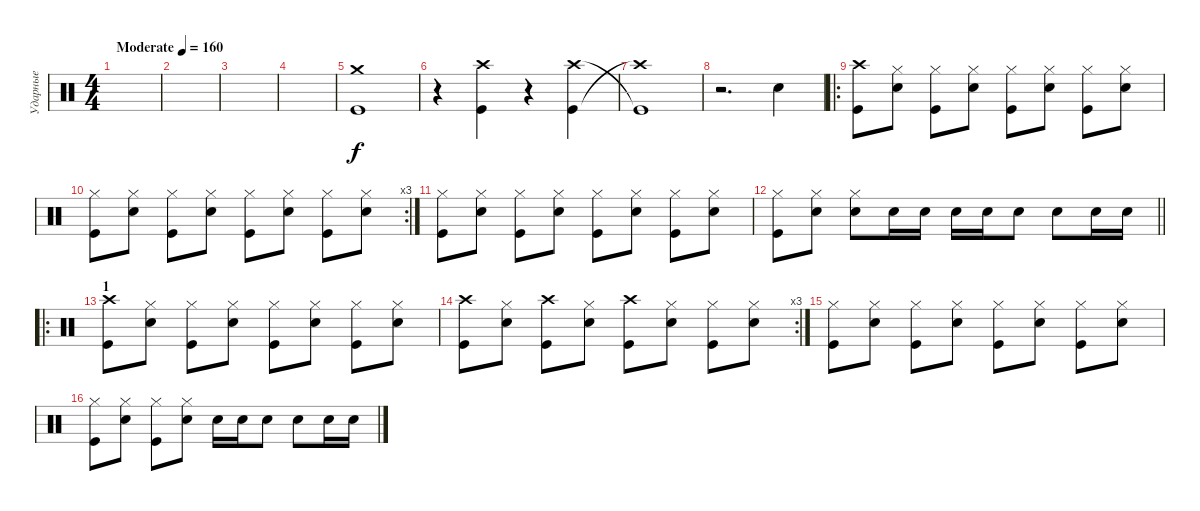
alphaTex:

\track ("Ударные" "Ударные") {instrument percussion}
\staff {score}
\articulation defaults
\ts (4 4)
\tempo (160 "Moderate")
\clef neutral
\ks c
|
|
|
|
("Kick (hit)" "Crash medium (hit)").1 |
r.4 ("Kick (hit)" "Crash high (hit)").4 r.4 ("Kick (hit)" "Crash high (hit)").4 |
("Crash high (hit)"{t} "Kick (hit)"{t}).1 |
r.2{d} "Snare (hit) 2".4 |
\ro
("Crash high (hit)" "Kick (hit)").8 ("Hi-Hat (closed)" "Snare (hit) 2").8 ("Hi-Hat (closed)" "Kick (hit)").8 ("Hi-Hat (closed)" "Snare (hit) 2").8 ("Hi-Hat (closed)" "Kick (hit)").8 ("Hi-Hat (closed)" "Snare (hit) 2").8 ("Hi-Hat (closed)" "Kick (hit)").8 ("Hi-Hat (closed)" "Snare (hit) 2").8 |
\rc 3
("Hi-Hat (closed)" "Kick (hit)").8 ("Hi-Hat (closed)" "Snare (hit) 2").8 ("Hi-Hat (closed)" "Kick (hit)").8 ("Hi-Hat (closed)" "Snare (hit) 2").8 ("Hi-Hat (closed)" "Kick (hit)").8 ("Hi-Hat (closed)" "Snare (hit) 2").8 ("Hi-Hat (closed)" "Kick (hit)").8 ("Hi-Hat (closed)" "Snare (hit) 2").8 |
("Hi-Hat (closed)" "Kick (hit)").8 ("Hi-Hat (closed)" "Snare (hit) 2").8 ("Hi-Hat (closed)" "Kick (hit)").8 ("Hi-Hat (closed)" "Snare (hit) 2").8 ("Hi-Hat (closed)" "Kick (hit)").8 ("Hi-Hat (closed)" "Snare (hit) 2").8 ("Hi-Hat (closed)" "Kick (hit)").8 ("Hi-Hat (closed)" "Snare (hit) 2").8 |
\barLineRight lightlight
("Hi-Hat (closed)" "Kick (hit)").8 ("Hi-Hat (closed)" "Snare (hit) 2").8 ("Hi-Hat (closed)" "Snare (hit) 2").8 "Snare (hit) 2".16 "Snare (hit) 2".16 "Snare (hit) 2".16 "Snare (hit) 2".16 "Snare (hit) 2".8 "Snare (hit) 2".8 "Snare (hit) 2".16 "Snare (hit) 2".16 |
\ro
\section ("" "1")
("Crash high (hit)" "Kick (hit)").8 ("Hi-Hat (closed)" "Snare (hit) 2").8 ("Hi-Hat (closed)" "Kick (hit)").8 ("Hi-Hat (closed)" "Snare (hit) 2").8 ("Hi-Hat (closed)" "Kick (hit)").8 ("Hi-Hat (closed)" "Snare (hit) 2").8 ("Hi-Hat (closed)" "Kick (hit)").8 ("Hi-Hat (closed)" "Snare (hit) 2").8 |
\rc 3
("Crash high (hit)" "Kick (hit)").8 ("Hi-Hat (closed)" "Snare (hit) 2").8 ("Crash high (hit)" "Kick (hit)").8 ("Hi-Hat (closed)" "Snare (hit) 2").8 ("Crash high (hit)" "Kick (hit)").8 ("Hi-Hat (closed)" "Snare (hit) 2").8 ("Hi-Hat (closed)" "Kick (hit)").8 ("Hi-Hat (closed)" "Snare (hit) 2").8 |
("Hi-Hat (closed)" "Kick (hit)").8 ("Hi-Hat (closed)" "Snare (hit) 2").8 ("Hi-Hat (closed)" "Kick (hit)").8 ("Hi-Hat (closed)" "Snare (hit) 2").8 ("Hi-Hat (closed)" "Kick (hit)").8 ("Hi-Hat (closed)" "Snare (hit) 2").8 ("Hi-Hat (closed)" "Kick (hit)").8 ("Hi-Hat (closed)" "Snare (hit) 2").8 |
("Hi-Hat (closed)" "Kick (hit)").8 ("Hi-Hat (closed)" "Snare (hit) 2").8 ("Hi-Hat (closed)" "Kick (hit)").8 ("Hi-Hat (closed)" "Snare (hit) 2").8 "Snare (hit) 2".16 "Snare (hit) 2".16 "Snare (hit) 2".8 "Snare (hit) 2".8 "Snare (hit) 2".16 "Snare (hit) 2".16
